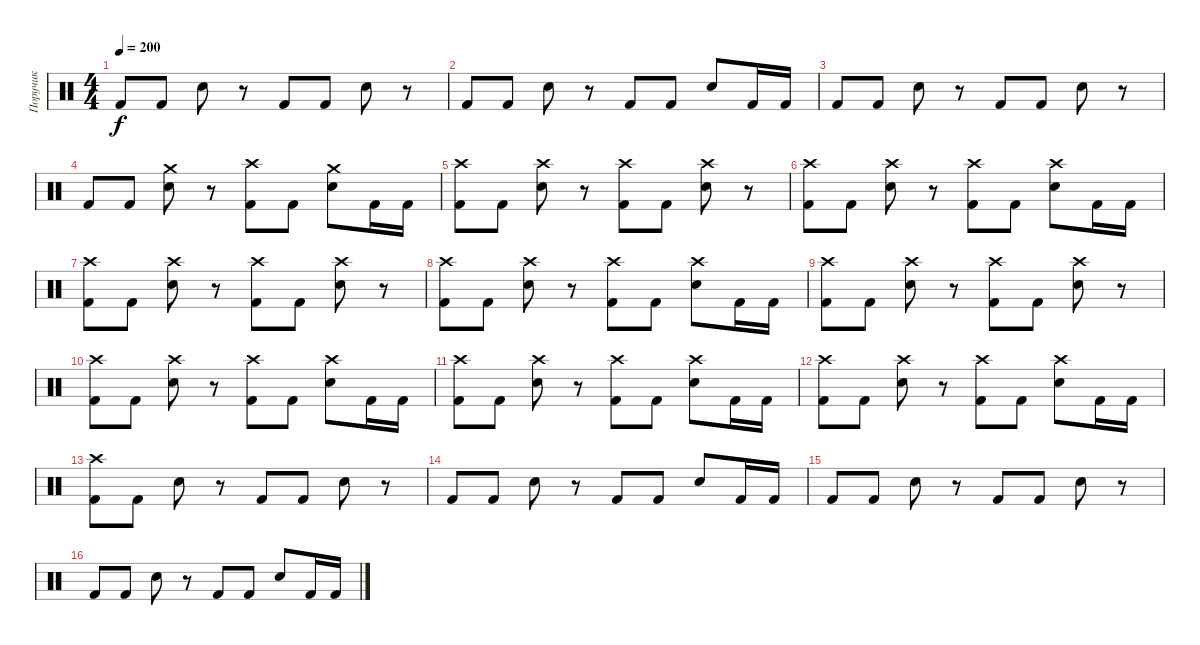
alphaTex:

\track ("Поручик" "Поручик") {instrument percussion}
\staff {score}
\articulation defaults
\ts (4 4)
\tempo 200
\clef neutral
\ks c "Kick (hit) 2".8{dy f} "Kick (hit) 2".8 "Electric Snare (hit)".8
r.8 "Kick (hit) 2".8 "Kick (hit) 2".8 "Electric Snare (hit)".8 r.8 |
"Kick (hit) 2".8 "Kick (hit) 2".8 "Electric Snare (hit)".8 r.8 "Kick (hit) 2".8 "Kick (hit) 2".8 "Electric Snare (hit)".8 "Kick (hit) 2".16 "Kick (hit) 2".16 |
"Kick (hit) 2".8 "Kick (hit) 2".8 "Electric Snare (hit)".8 r.8 "Kick (hit) 2".8 "Kick (hit) 2".8 "Electric Snare (hit)".8 r.8 |
"Kick (hit) 2".8 "Kick (hit) 2".8 ("Crash medium (hit)" "Electric Snare (hit)").8 r.8 ("Crash high (hit)" "Kick (hit) 2").8 "Kick (hit) 2".8 ("Crash medium (hit)" "Electric Snare (hit)").8 "Kick (hit) 2".16 "Kick (hit) 2".16 |
("Crash high (hit)" "Kick (hit) 2").8 "Kick (hit) 2".8 ("Crash high (hit)" "Electric Snare (hit)").8 r.8 ("Crash high (hit)" "Kick (hit) 2").8 "Kick (hit) 2".8 ("Crash high (hit)" "Electric Snare (hit)").8 r.8 |
("Crash high (hit)" "Kick (hit) 2").8 "Kick (hit) 2".8 ("Crash high (hit)" "Electric Snare (hit)").8 r.8 ("Crash high (hit)" "Kick (hit) 2").8 "Kick (hit) 2".8 ("Crash high (hit)" "Electric Snare (hit)").8 "Kick (hit) 2".16 "Kick (hit) 2".16 |
("Crash high (hit)" "Kick (hit) 2").8 "Kick (hit) 2".8 ("Crash high (hit)" "Electric Snare (hit)").8 r.8 ("Crash high (hit)" "Kick (hit) 2").8 "Kick (hit) 2".8 ("Crash high (hit)" "Electric Snare (hit)").8 r.8 |
("Crash high (hit)" "Kick (hit) 2").8 "Kick (hit) 2".8 ("Crash high (hit)" "Electric Snare (hit)").8 r.8 ("Crash high (hit)" "Kick (hit) 2").8 "Kick (hit) 2".8 ("Crash high (hit)" "Electric Snare (hit)").8 "Kick (hit) 2".16 "Kick (hit) 2".16 |
("Crash high (hit)" "Kick (hit) 2").8 "Kick (hit) 2".8 ("Crash high (hit)" "Electric Snare (hit)").8 r.8 ("Crash high (hit)" "Kick (hit) 2").8 "Kick (hit) 2".8 ("Crash high (hit)" "Electric Snare (hit)").8 r.8 |
("Crash high (hit)" "Kick (hit) 2").8 "Kick (hit) 2".8 ("Crash high (hit)" "Electric Snare (hit)").8 r.8 ("Crash high (hit)" "Kick (hit) 2").8 "Kick (hit) 2".8 ("Crash high (hit)" "Electric Snare (hit)").8 "Kick (hit) 2".16 "Kick (hit) 2".16 |
("Crash high (hit)" "Kick (hit) 2").8 "Kick (hit) 2".8 ("Crash high (hit)" "Electric Snare (hit)").8 r.8 ("Crash high (hit)" "Kick (hit) 2").8 "Kick (hit) 2".8 ("Crash high (hit)" "Electric Snare (hit)").8 "Kick (hit) 2".16 "Kick (hit) 2".16 |
("Crash high (hit)" "Kick (hit) 2").8 "Kick (hit) 2".8 ("Crash high (hit)" "Electric Snare (hit)").8 r.8 ("Crash high (hit)" "Kick (hit) 2").8 "Kick (hit) 2".8 ("Crash high (hit)" "Electric Snare (hit)").8 "Kick (hit) 2".16 "Kick (hit) 2".16 |
("Crash high (hit)" "Kick (hit) 2").8 "Kick (hit) 2".8 "Electric Snare (hit)".8 r.8 "Kick (hit) 2".8 "Kick (hit) 2".8 "Electric Snare (hit)".8 r.8 |
"Kick (hit) 2".8 "Kick (hit) 2".8 "Electric Snare (hit)".8 r.8 "Kick (hit) 2".8 "Kick (hit) 2".8 "Electric Snare (hit)".8 "Kick (hit) 2".16 "Kick (hit) 2".16 |
"Kick (hit) 2".8 "Kick (hit) 2".8 "Electric Snare (hit)".8 r.8 "Kick (hit) 2".8 "Kick (hit) 2".8 "Electric Snare (hit)".8 r.8 |
"Kick (hit) 2".8 "Kick (hit) 2".8 "Electric Snare (hit)".8 r.8 "Kick (hit) 2".8 "Kick (hit) 2".8 "Electric Snare (hit)".8 "Kick (hit) 2".16 "Kick (hit) 2".16
